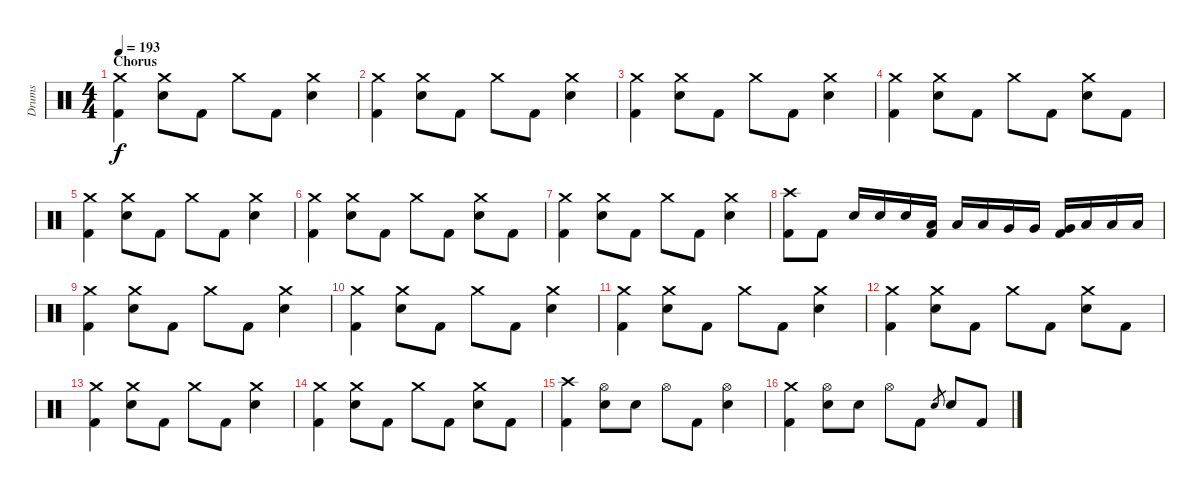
\track ("Drums" "Drums") {instrument percussion}
\staff {score}
\articulation defaults
\ts (4 4)
\section ("" "Chorus")
\tempo 193
\clef neutral
\ks c
("Crash medium (hit)" "Kick (hit) 2").4{dy f} ("Crash medium (hit)" "Electric Snare (hit)").8 "Kick (hit) 2".8 "Crash medium (hit)".8 "Kick (hit) 2".8 ("Crash medium (hit)" "Electric Snare (hit)").4 |
("Crash medium (hit)" "Kick (hit) 2").4 ("Crash medium (hit)" "Electric Snare (hit)").8 "Kick (hit) 2".8 "Crash medium (hit)".8 "Kick (hit) 2".8 ("Crash medium (hit)" "Electric Snare (hit)").4 |
("Crash medium (hit)" "Kick (hit) 2").4 ("Crash medium (hit)" "Electric Snare (hit)").8 "Kick (hit) 2".8 "Crash medium (hit)".8 "Kick (hit) 2".8 ("Crash medium (hit)" "Electric Snare (hit)").4 |
("Crash medium (hit)" "Kick (hit) 2").4 ("Crash medium (hit)" "Electric Snare (hit)").8 "Kick (hit) 2".8 "Crash medium (hit)".8 "Kick (hit) 2".8 ("Crash medium (hit)" "Electric Snare (hit)").8 "Kick (hit) 2".8 |
("Crash medium (hit)" "Kick (hit) 2").4 ("Crash medium (hit)" "Electric Snare (hit)").8 "Kick (hit) 2".8 "Crash medium (hit)".8 "Kick (hit) 2".8 ("Crash medium (hit)" "Electric Snare (hit)").4 |
("Crash medium (hit)" "Kick (hit) 2").4 ("Crash medium (hit)" "Electric Snare (hit)").8 "Kick (hit) 2".8 "Crash medium (hit)".8 "Kick (hit) 2".8 ("Crash medium (hit)" "Electric Snare (hit)").8 "Kick (hit) 2".8 |
("Crash medium (hit)" "Kick (hit) 2").4 ("Crash medium (hit)" "Electric Snare (hit)").8 "Kick (hit) 2".8 "Crash medium (hit)".8 "Kick (hit) 2".8 ("Crash medium (hit)" "Electric Snare (hit)").4 |
("Crash high (hit)" "Kick (hit) 2").8 "Kick (hit) 2".8 "Electric Snare (hit)".16 "Electric Snare (hit)".16 "Electric Snare (hit)".16 ("Low Tom (hit)" "Kick (hit) 2").16 "Low Tom (hit)".16 "Low Tom (hit)".16 "Very Low Tom (hit)".16 "Very Low Tom (hit)".16 ("Very Low Tom (hit)" "Kick (hit) 2").16 "Low Floor Tom (hit)".16 "Low Floor Tom (hit)".16 "Low Floor Tom (hit)".16 |
("Crash medium (hit)" "Kick (hit) 2").4 ("Crash medium (hit)" "Electric Snare (hit)").8 "Kick (hit) 2".8 "Crash medium (hit)".8 "Kick (hit) 2".8 ("Crash medium (hit)" "Electric Snare (hit)").4 |
("Crash medium (hit)" "Kick (hit) 2").4 ("Crash medium (hit)" "Electric Snare (hit)").8 "Kick (hit) 2".8 "Crash medium (hit)".8 "Kick (hit) 2".8 ("Crash medium (hit)" "Electric Snare (hit)").4 |
("Crash medium (hit)" "Kick (hit) 2").4 ("Crash medium (hit)" "Electric Snare (hit)").8 "Kick (hit) 2".8 "Crash medium (hit)".8 "Kick (hit) 2".8 ("Crash medium (hit)" "Electric Snare (hit)").4 |
("Crash medium (hit)" "Kick (hit) 2").4 ("Crash medium (hit)" "Electric Snare (hit)").8 "Kick (hit) 2".8 "Crash medium (hit)".8 "Kick (hit) 2".8 ("Crash medium (hit)" "Electric Snare (hit)").8 "Kick (hit) 2".8 |
("Crash medium (hit)" "Kick (hit) 2").4 ("Crash medium (hit)" "Electric Snare (hit)").8 "Kick (hit) 2".8 "Crash medium (hit)".8 "Kick (hit) 2".8 ("Crash medium (hit)" "Electric Snare (hit)").4 |
("Crash medium (hit)" "Kick (hit) 2").4 ("Crash medium (hit)" "Electric Snare (hit)").8 "Kick (hit) 2".8 "Crash medium (hit)".8 "Kick (hit) 2".8 ("Crash medium (hit)" "Electric Snare (hit)").8 "Kick (hit) 2".8 |
("Crash high (hit)" "Kick (hit) 2").4 ("Hi-Hat (open)" "Electric Snare (hit)").8 "Electric Snare (hit)".8 "Hi-Hat (open)".8 "Kick (hit) 2".8 ("Hi-Hat (open)" "Electric Snare (hit)").4 |
("Crash medium (hit)" "Kick (hit) 2").4 ("Hi-Hat (open)" "Electric Snare (hit)").8 "Electric Snare (hit)".8 "Hi-Hat (open)".8 "Kick (hit) 2".8 "Electric Snare (hit)".8{gr} "Electric Snare (hit)".8 "Kick (hit) 2".8
